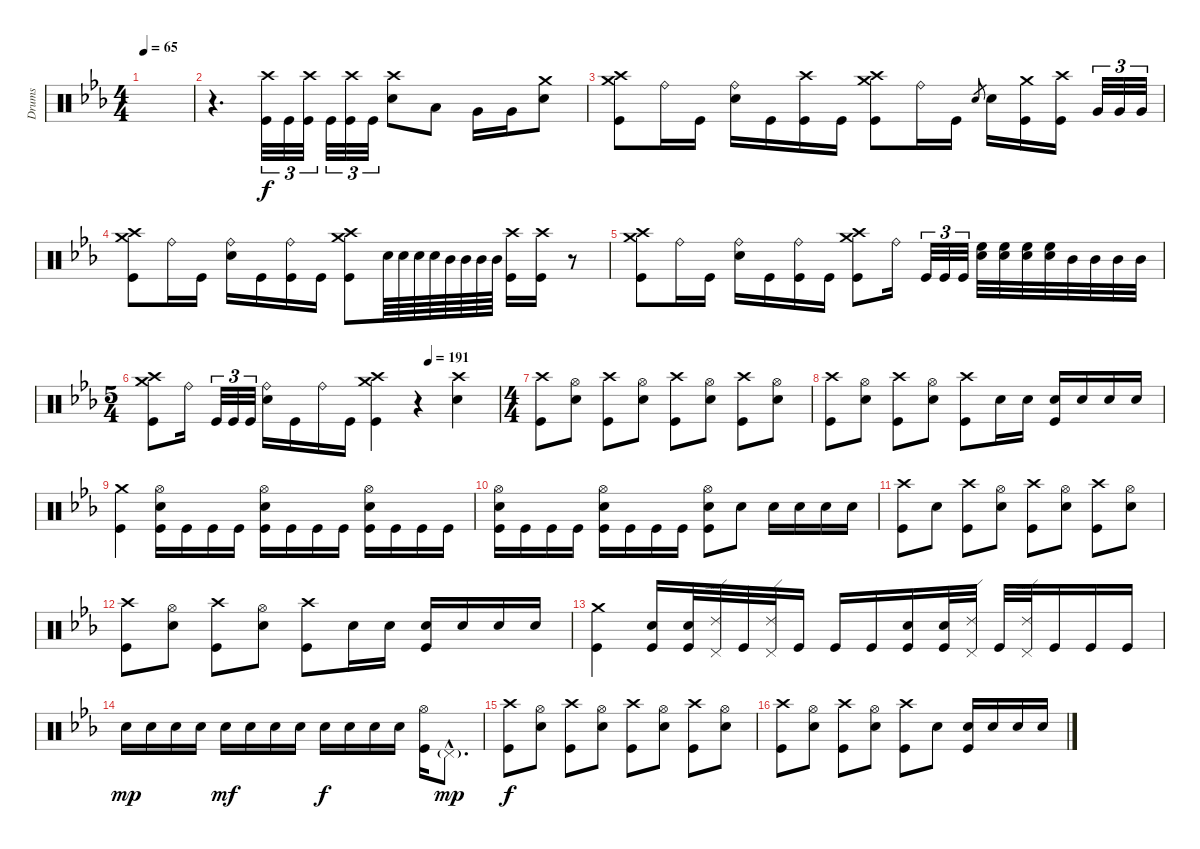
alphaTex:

\track ("Drums" "Drums") {instrument percussion}
\staff {score}
\articulation defaults
\ts (4 4)
\tempo 65
\clef neutral
\ks cminor
|
r.4{d volume 14} ("Crash high (hit)" "Kick (hit)").32{tu (3 2)} "Kick (hit)".32{tu (3 2)} ("Crash high (hit)" "Kick (hit)").32{tu (3 2)} "Kick (hit)".32{tu (3 2)} ("Crash high (hit)" "Kick (hit)").32{tu (3 2)} "Kick (hit)".32{tu (3 2)} ("Crash high (hit)" "Electric Snare (hit)").8 "Low Tom (hit)".8 "Very Low Tom (hit)".16 "Very Low Tom (hit)".16 ("Crash medium (hit)" "Electric Snare (hit)").8 |
("Crash medium (hit)" "Crash high (hit)" "Kick (hit)").8 "Ride (bell)".16 "Kick (hit)".16 ("Ride (bell)" "Electric Snare (hit)").16 "Kick (hit)".16 ("Crash high (hit)" "Kick (hit)").16 "Kick (hit)".16 ("Crash medium (hit)" "Crash high (hit)" "Kick (hit)").8 "Ride (bell)".16 "Kick (hit)".16 "Electric Snare (hit)".8{gr} "Electric Snare (hit)".16 ("Crash medium (hit)" "Kick (hit)").16 ("Crash high (hit)" "Kick (hit)").16 "Very Low Tom (hit)".32{tu (3 2)} "Very Low Tom (hit)".32{tu (3 2)} "Very Low Tom (hit)".32{tu (3 2)} |
("Crash medium (hit)" "Crash high (hit)" "Kick (hit)").8 "Ride (bell)".16 "Kick (hit)".16 ("Ride (bell)" "Electric Snare (hit)").16 "Kick (hit)".16 ("Ride (bell)" "Kick (hit)").16 "Kick (hit)".16 ("Crash medium (hit)" "Crash high (hit)" "Kick (hit)").8 "Electric Snare (hit)".64 "Electric Snare (hit)".64 "Electric Snare (hit)".64 "Electric Snare (hit)".64 "Mid Tom (hit)".64 "Mid Tom (hit)".64 "Mid Tom (hit)".64 "Mid Tom (hit)".64 ("Crash high (hit)" "Kick (hit)").16 ("Crash high (hit)" "Kick (hit)").16 r.8 |
("Crash medium (hit)" "Crash high (hit)" "Kick (hit)").8 "Ride (bell)".16 "Kick (hit)".16 ("Ride (bell)" "Electric Snare (hit)").16 "Kick (hit)".16 ("Ride (bell)" "Kick (hit)").16 "Kick (hit)".16 ("Crash medium (hit)" "Crash high (hit)" "Kick (hit)").8 "Ride (bell)".16 "Kick (hit)".32{tu (3 2)} "Kick (hit)".32{tu (3 2)} "Kick (hit)".32{tu (3 2)} ("High Floor Tom (hit)" "Electric Snare (hit)").32 ("High Floor Tom (hit)" "Electric Snare (hit)").32 ("High Floor Tom (hit)" "Electric Snare (hit)").32 ("High Floor Tom (hit)" "Electric Snare (hit)").32 "Mid Tom (hit)".32 "Mid Tom (hit)".32 "Mid Tom (hit)".32 "Mid Tom (hit)".32 |
\ts (5 4)
\tempo (191 0.8)
("Crash medium (hit)" "Crash high (hit)" "Kick (hit)").8 "Ride (bell)".16 "Kick (hit)".32{tu (3 2)} "Kick (hit)".32{tu (3 2)} "Kick (hit)".32{tu (3 2)} ("Ride (bell)" "Electric Snare (hit)").16 "Kick (hit)".16 "Ride (bell)".16 "Kick (hit)".16 ("Crash medium (hit)" "Crash high (hit)" "Kick (hit)").4 r.4 ("Crash high (hit)" "Electric Snare (hit)").4 |
\ts (4 4)
("Crash high (hit)" "Kick (hit)").8 ("Hi-Hat (open)" "Electric Snare (hit)").8 ("Crash high (hit)" "Kick (hit)").8 ("Hi-Hat (open)" "Electric Snare (hit)").8 ("Crash high (hit)" "Kick (hit)").8 ("Hi-Hat (open)" "Electric Snare (hit)").8 ("Crash high (hit)" "Kick (hit)").8 ("Hi-Hat (open)" "Electric Snare (hit)").8 |
("Crash high (hit)" "Kick (hit)").8 ("Hi-Hat (open)" "Electric Snare (hit)").8 ("Crash high (hit)" "Kick (hit)").8 ("Hi-Hat (open)" "Electric Snare (hit)").8 ("Crash high (hit)" "Kick (hit)").8 "Electric Snare (hit)".16 "Electric Snare (hit)".16 ("Electric Snare (hit)" "Kick (hit)").16 "Electric Snare (hit)".16 "Electric Snare (hit)".16 "Electric Snare (hit)".16 |
("Crash medium (hit)" "Kick (hit)").4 ("Hi-Hat (open)" "Electric Snare (hit)" "Kick (hit)").16 "Kick (hit)".16 "Kick (hit)".16 "Kick (hit)".16 ("Hi-Hat (open)" "Electric Snare (hit)" "Kick (hit)").16 "Kick (hit)".16 "Kick (hit)".16 "Kick (hit)".16 ("Hi-Hat (open)" "Electric Snare (hit)" "Kick (hit)").16 "Kick (hit)".16 "Kick (hit)".16 "Kick (hit)".16 |
("Hi-Hat (open)" "Electric Snare (hit)" "Kick (hit)").16 "Kick (hit)".16 "Kick (hit)".16 "Kick (hit)".16 ("Hi-Hat (open)" "Electric Snare (hit)" "Kick (hit)").16 "Kick (hit)".16 "Kick (hit)".16 "Kick (hit)".16 ("Hi-Hat (open)" "Electric Snare (hit)" "Kick (hit)").8 "Electric Snare (hit)".8 "Electric Snare (hit)".16 "Electric Snare (hit)".16 "Electric Snare (hit)".16 "Electric Snare (hit)".16 |
("Crash high (hit)" "Kick (hit)").8 "Electric Snare (hit)".8 ("Crash high (hit)" "Kick (hit)").8 ("Hi-Hat (open)" "Electric Snare (hit)").8 ("Crash high (hit)" "Kick (hit)").8 ("Hi-Hat (open)" "Electric Snare (hit)").8 ("Crash high (hit)" "Kick (hit)").8 ("Hi-Hat (open)" "Electric Snare (hit)").8 |
("Crash high (hit)" "Kick (hit)").8 ("Hi-Hat (open)" "Electric Snare (hit)").8 ("Crash high (hit)" "Kick (hit)").8 ("Hi-Hat (open)" "Electric Snare (hit)").8 ("Crash high (hit)" "Kick (hit)").8 "Electric Snare (hit)".16 "Electric Snare (hit)".16 ("Electric Snare (hit)" "Kick (hit)").16 "Electric Snare (hit)".16 "Electric Snare (hit)".16 "Electric Snare (hit)".16 |
("Crash medium (hit)" "Kick (hit)").4 ("Electric Snare (hit)" "Kick (hit)").16 ("Electric Snare (hit)" "Kick (hit)").32 ("Ride (edge) 2" "Pedal Hi-Hat (hit)").32 "Kick (hit)".32 ("Ride (edge) 2" "Pedal Hi-Hat (hit)").32 "Kick (hit)".16 "Kick (hit)".16 "Kick (hit)".16 ("Electric Snare (hit)" "Kick (hit)").16 ("Electric Snare (hit)" "Kick (hit)").32 ("Ride (edge) 2" "Pedal Hi-Hat (hit)").32 "Kick (hit)".32 ("Ride (edge) 2" "Pedal Hi-Hat (hit)").32 "Kick (hit)".16 "Kick (hit)".16 "Kick (hit)".16 |
"Electric Snare (hit)".16{dy mp} "Electric Snare (hit)".16 "Electric Snare (hit)".16 "Electric Snare (hit)".16 "Electric Snare (hit)".16{dy mf} "Electric Snare (hit)".16 "Electric Snare (hit)".16 "Electric Snare (hit)".16 "Electric Snare (hit)".16{dy f} "Electric Snare (hit)".16 "Electric Snare (hit)".16 "Electric Snare (hit)".16 ("Hi-Hat (open)" "Kick (hit)").16 "Pedal Hi-Hat (hit)"{g hac}.8{d dy mp} |
("Crash high (hit)" "Kick (hit)").8{dy f} ("Hi-Hat (open)" "Electric Snare (hit)").8 ("Crash high (hit)" "Kick (hit)").8 ("Hi-Hat (open)" "Electric Snare (hit)").8 ("Crash high (hit)" "Kick (hit)").8 ("Hi-Hat (open)" "Electric Snare (hit)").8 ("Crash high (hit)" "Kick (hit)").8 ("Hi-Hat (open)" "Electric Snare (hit)").8 |
("Crash high (hit)" "Kick (hit)").8 ("Hi-Hat (open)" "Electric Snare (hit)").8 ("Crash high (hit)" "Kick (hit)").8 ("Hi-Hat (open)" "Electric Snare (hit)").8 ("Crash high (hit)" "Kick (hit)").8 "Electric Snare (hit)".8 ("Electric Snare (hit)" "Kick (hit)").16 "Electric Snare (hit)".16 "Electric Snare (hit)".16 "Electric Snare (hit)".16
